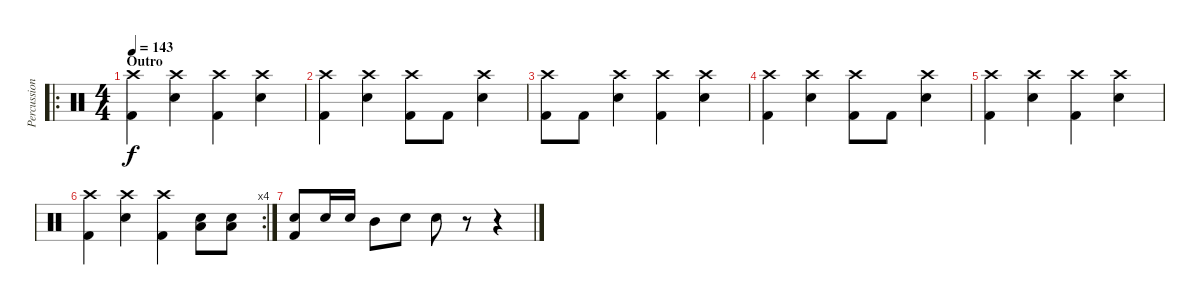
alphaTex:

\track ("Percussion" "Percussion") {instrument percussion}
\staff {score}
\articulation defaults
\ro
\ts (4 4)
\section ("" "Outro")
\tempo 143
\clef neutral
\ks c
("Crash high (hit)" "Kick (hit) 2").4{dy f} ("Crash high (hit)" "Electric Snare (hit)").4 ("Crash high (hit)" "Kick (hit) 2").4 ("Crash high (hit)" "Electric Snare (hit)").4 |
("Crash high (hit)" "Kick (hit) 2").4 ("Crash high (hit)" "Electric Snare (hit)").4 ("Crash high (hit)" "Kick (hit) 2").8 "Kick (hit) 2".8 ("Crash high (hit)" "Electric Snare (hit)").4 |
("Crash high (hit)" "Kick (hit) 2").8 "Kick (hit) 2".8 ("Crash high (hit)" "Electric Snare (hit)").4 ("Crash high (hit)" "Kick (hit) 2").4 ("Crash high (hit)" "Electric Snare (hit)").4 |
("Crash high (hit)" "Kick (hit) 2").4 ("Crash high (hit)" "Electric Snare (hit)").4 ("Crash high (hit)" "Kick (hit) 2").8 "Kick (hit) 2".8 ("Crash high (hit)" "Electric Snare (hit)").4 |
("Crash high (hit)" "Kick (hit) 2").4 ("Crash high (hit)" "Electric Snare (hit)").4 ("Crash high (hit)" "Kick (hit) 2").4 ("Crash high (hit)" "Electric Snare (hit)").4 |
\rc 4
("Crash high (hit)" "Kick (hit) 2").4 ("Crash high (hit)" "Electric Snare (hit)").4 ("Crash high (hit)" "Kick (hit) 2").4 ("Electric Snare (hit)" "Low Tom (hit)").8 ("Electric Snare (hit)" "Low Tom (hit)").8 |
("Electric Snare (hit)" "Kick (hit) 2").8 "Electric Snare (hit)".16 "Electric Snare (hit)".16 "Mid Tom (hit)".8 "Electric Snare (hit)".8 "Electric Snare (hit)".8 r.8 r.4
